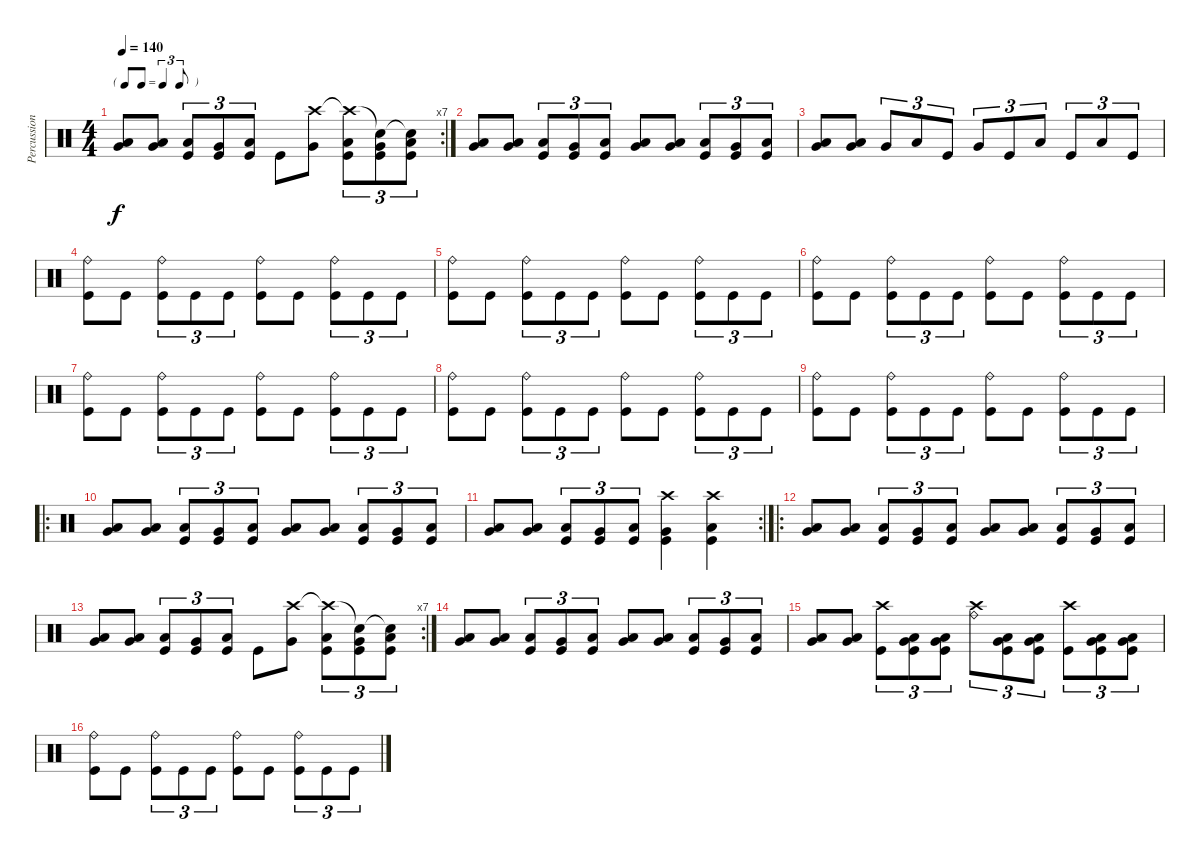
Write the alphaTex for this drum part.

\track ("Percussion" "Percussion") {instrument percussion}
\staff {score}
\articulation defaults
\rc 7
\ts (4 4)
\tf triplet8th
\tempo 140
\clef neutral
\ks c
("Very Low Tom (hit)" "Low Floor Tom (hit)").8{dy f} ("Very Low Tom (hit)" "Low Floor Tom (hit)").8 ("Low Floor Tom (hit)" "Kick (hit)").8{tu (3 2)} ("Very Low Tom (hit)" "Kick (hit)").8{tu (3 2)} ("Low Floor Tom (hit)" "Kick (hit)").8{tu (3 2)} "Kick (hit)".8 ("Crash high (hit)" "Very Low Tom (hit)").8 ("Crash high (hit)"{t} "Low Floor Tom (hit)" "Kick (hit)").8{tu (3 2)} ("Snare (hit)"{t} "Very Low Tom (hit)" "Kick (hit)").8{tu (3 2)} ("Snare (hit)"{t} "Low Floor Tom (hit)" "Kick (hit)").8{tu (3 2)} |
("Very Low Tom (hit)" "Low Floor Tom (hit)").8 ("Very Low Tom (hit)" "Low Floor Tom (hit)").8 ("Low Floor Tom (hit)" "Kick (hit)").8{tu (3 2)} ("Very Low Tom (hit)" "Kick (hit)").8{tu (3 2)} ("Low Floor Tom (hit)" "Kick (hit)").8{tu (3 2)} ("Very Low Tom (hit)" "Low Floor Tom (hit)").8 ("Very Low Tom (hit)" "Low Floor Tom (hit)").8 ("Low Floor Tom (hit)" "Kick (hit)").8{tu (3 2)} ("Very Low Tom (hit)" "Kick (hit)").8{tu (3 2)} ("Low Floor Tom (hit)" "Kick (hit)").8{tu (3 2)} |
("Very Low Tom (hit)" "Low Floor Tom (hit)").8 ("Very Low Tom (hit)" "Low Floor Tom (hit)").8 "Very Low Tom (hit)".8{tu (3 2)} "Low Floor Tom (hit)".8{tu (3 2)} "Kick (hit)".8{tu (3 2)} "Very Low Tom (hit)".8{tu (3 2)} "Kick (hit)".8{tu (3 2)} "Low Floor Tom (hit)".8{tu (3 2)} "Kick (hit)".8{tu (3 2)} "Low Floor Tom (hit)".8{tu (3 2)} "Kick (hit)".8{tu (3 2)} |
("Ride (bell)" "Kick (hit)").8 "Kick (hit)".8 ("Ride (bell)" "Kick (hit)").8{tu (3 2)} "Kick (hit)".8{tu (3 2)} "Kick (hit)".8{tu (3 2)} ("Ride (bell)" "Kick (hit)").8 "Kick (hit)".8 ("Ride (bell)" "Kick (hit)").8{tu (3 2)} "Kick (hit)".8{tu (3 2)} "Kick (hit)".8{tu (3 2)} |
("Ride (bell)" "Kick (hit)").8 "Kick (hit)".8 ("Ride (bell)" "Kick (hit)").8{tu (3 2)} "Kick (hit)".8{tu (3 2)} "Kick (hit)".8{tu (3 2)} ("Ride (bell)" "Kick (hit)").8 "Kick (hit)".8 ("Ride (bell)" "Kick (hit)").8{tu (3 2)} "Kick (hit)".8{tu (3 2)} "Kick (hit)".8{tu (3 2)} |
("Ride (bell)" "Kick (hit)").8 "Kick (hit)".8 ("Ride (bell)" "Kick (hit)").8{tu (3 2)} "Kick (hit)".8{tu (3 2)} "Kick (hit)".8{tu (3 2)} ("Ride (bell)" "Kick (hit)").8 "Kick (hit)".8 ("Ride (bell)" "Kick (hit)").8{tu (3 2)} "Kick (hit)".8{tu (3 2)} "Kick (hit)".8{tu (3 2)} |
("Ride (bell)" "Kick (hit)").8 "Kick (hit)".8 ("Ride (bell)" "Kick (hit)").8{tu (3 2)} "Kick (hit)".8{tu (3 2)} "Kick (hit)".8{tu (3 2)} ("Ride (bell)" "Kick (hit)").8 "Kick (hit)".8 ("Ride (bell)" "Kick (hit)").8{tu (3 2)} "Kick (hit)".8{tu (3 2)} "Kick (hit)".8{tu (3 2)} |
("Ride (bell)" "Kick (hit)").8 "Kick (hit)".8 ("Ride (bell)" "Kick (hit)").8{tu (3 2)} "Kick (hit)".8{tu (3 2)} "Kick (hit)".8{tu (3 2)} ("Ride (bell)" "Kick (hit)").8 "Kick (hit)".8 ("Ride (bell)" "Kick (hit)").8{tu (3 2)} "Kick (hit)".8{tu (3 2)} "Kick (hit)".8{tu (3 2)} |
("Ride (bell)" "Kick (hit)").8 "Kick (hit)".8 ("Ride (bell)" "Kick (hit)").8{tu (3 2)} "Kick (hit)".8{tu (3 2)} "Kick (hit)".8{tu (3 2)} ("Ride (bell)" "Kick (hit)").8 "Kick (hit)".8 ("Ride (bell)" "Kick (hit)").8{tu (3 2)} "Kick (hit)".8{tu (3 2)} "Kick (hit)".8{tu (3 2)} |
\ro
("Very Low Tom (hit)" "Low Floor Tom (hit)").8 ("Very Low Tom (hit)" "Low Floor Tom (hit)").8 ("Low Floor Tom (hit)" "Kick (hit)").8{tu (3 2)} ("Very Low Tom (hit)" "Kick (hit)").8{tu (3 2)} ("Low Floor Tom (hit)" "Kick (hit)").8{tu (3 2)} ("Very Low Tom (hit)" "Low Floor Tom (hit)").8 ("Very Low Tom (hit)" "Low Floor Tom (hit)").8 ("Low Floor Tom (hit)" "Kick (hit)").8{tu (3 2)} ("Very Low Tom (hit)" "Kick (hit)").8{tu (3 2)} ("Low Floor Tom (hit)" "Kick (hit)").8{tu (3 2)} |
\rc 2
("Very Low Tom (hit)" "Low Floor Tom (hit)").8 ("Very Low Tom (hit)" "Low Floor Tom (hit)").8 ("Low Floor Tom (hit)" "Kick (hit)").8{tu (3 2)} ("Very Low Tom (hit)" "Kick (hit)").8{tu (3 2)} ("Low Floor Tom (hit)" "Kick (hit)").8{tu (3 2)} ("Crash high (hit)" "Very Low Tom (hit)" "Kick (hit)").4 ("Crash high (hit)" "Low Floor Tom (hit)" "Kick (hit)").4 |
\ro
("Very Low Tom (hit)" "Low Floor Tom (hit)").8 ("Very Low Tom (hit)" "Low Floor Tom (hit)").8 ("Low Floor Tom (hit)" "Kick (hit)").8{tu (3 2)} ("Very Low Tom (hit)" "Kick (hit)").8{tu (3 2)} ("Low Floor Tom (hit)" "Kick (hit)").8{tu (3 2)} ("Very Low Tom (hit)" "Low Floor Tom (hit)").8 ("Very Low Tom (hit)" "Low Floor Tom (hit)").8 ("Low Floor Tom (hit)" "Kick (hit)").8{tu (3 2)} ("Very Low Tom (hit)" "Kick (hit)").8{tu (3 2)} ("Low Floor Tom (hit)" "Kick (hit)").8{tu (3 2)} |
\rc 7
("Very Low Tom (hit)" "Low Floor Tom (hit)").8 ("Very Low Tom (hit)" "Low Floor Tom (hit)").8 ("Low Floor Tom (hit)" "Kick (hit)").8{tu (3 2)} ("Very Low Tom (hit)" "Kick (hit)").8{tu (3 2)} ("Low Floor Tom (hit)" "Kick (hit)").8{tu (3 2)} "Kick (hit)".8 ("Crash high (hit)" "Very Low Tom (hit)").8 ("Crash high (hit)"{t} "Low Floor Tom (hit)" "Kick (hit)").8{tu (3 2)} ("Snare (hit)"{t} "Very Low Tom (hit)" "Kick (hit)").8{tu (3 2)} ("Snare (hit)"{t} "Low Floor Tom (hit)" "Kick (hit)").8{tu (3 2)} |
("Very Low Tom (hit)" "Low Floor Tom (hit)").8 ("Very Low Tom (hit)" "Low Floor Tom (hit)").8 ("Low Floor Tom (hit)" "Kick (hit)").8{tu (3 2)} ("Very Low Tom (hit)" "Kick (hit)").8{tu (3 2)} ("Low Floor Tom (hit)" "Kick (hit)").8{tu (3 2)} ("Very Low Tom (hit)" "Low Floor Tom (hit)").8 ("Very Low Tom (hit)" "Low Floor Tom (hit)").8 ("Low Floor Tom (hit)" "Kick (hit)").8{tu (3 2)} ("Very Low Tom (hit)" "Kick (hit)").8{tu (3 2)} ("Low Floor Tom (hit)" "Kick (hit)").8{tu (3 2)} |
("Very Low Tom (hit)" "Low Floor Tom (hit)").8 ("Very Low Tom (hit)" "Low Floor Tom (hit)").8 ("Crash high (hit)" "Kick (hit)").8{tu (3 2)} ("Very Low Tom (hit)" "Low Floor Tom (hit)" "Kick (hit)").8{tu (3 2)} ("Very Low Tom (hit)" "Low Floor Tom (hit)" "Kick (hit)").8{tu (3 2)} ("Crash high (hit)" "Ride (bell)").8{tu (3 2)} ("Low Floor Tom (hit)" "Very Low Tom (hit)" "Kick (hit)").8{tu (3 2)} ("Low Floor Tom (hit)" "Very Low Tom (hit)" "Kick (hit)").8{tu (3 2)} ("Crash high (hit)" "Kick (hit)").8{tu (3 2)} ("Low Floor Tom (hit)" "Very Low Tom (hit)" "Kick (hit)").8{tu (3 2)} ("Low Floor Tom (hit)" "Very Low Tom (hit)" "Kick (hit)").8{tu (3 2)} |
("Ride (bell)" "Kick (hit)").8 "Kick (hit)".8 ("Ride (bell)" "Kick (hit)").8{tu (3 2)} "Kick (hit)".8{tu (3 2)} "Kick (hit)".8{tu (3 2)} ("Ride (bell)" "Kick (hit)").8 "Kick (hit)".8 ("Ride (bell)" "Kick (hit)").8{tu (3 2)} "Kick (hit)".8{tu (3 2)} "Kick (hit)".8{tu (3 2)}
